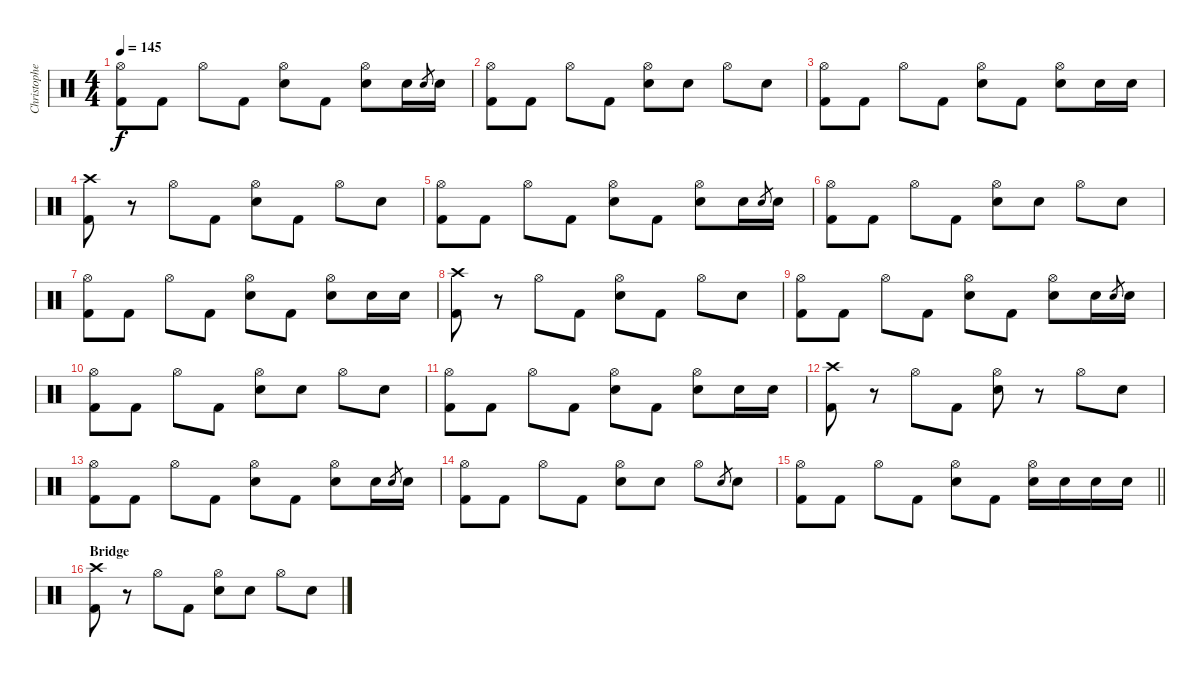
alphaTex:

\track ("Christopher - Drums" "Christophe") {instrument percussion}
\staff {score}
\articulation defaults
\ts (4 4)
\tempo 145
\clef neutral
\ks c
("Hi-Hat (open)" "Kick (hit) 2").8{dy f} "Kick (hit) 2".8 "Hi-Hat (open)".8 "Kick (hit) 2".8 ("Hi-Hat (open)" "Electric Snare (hit)").8 "Kick (hit) 2".8 ("Hi-Hat (open)" "Electric Snare (hit)").8 "Electric Snare (hit)".16 "Electric Snare (hit)".8{gr} "Electric Snare (hit)".16 |
("Hi-Hat (open)" "Kick (hit) 2").8 "Kick (hit) 2".8 "Hi-Hat (open)".8 "Kick (hit) 2".8 ("Hi-Hat (open)" "Electric Snare (hit)").8 "Electric Snare (hit)".8 "Hi-Hat (open)".8 "Electric Snare (hit)".8 |
("Hi-Hat (open)" "Kick (hit) 2").8 "Kick (hit) 2".8 "Hi-Hat (open)".8 "Kick (hit) 2".8 ("Hi-Hat (open)" "Electric Snare (hit)").8 "Kick (hit) 2".8 ("Hi-Hat (open)" "Electric Snare (hit)").8 "Electric Snare (hit)".16 "Electric Snare (hit)".16 |
("Crash high (hit)" "Kick (hit) 2").8 r.8 "Hi-Hat (open)".8 "Kick (hit) 2".8 ("Hi-Hat (open)" "Electric Snare (hit)").8 "Kick (hit) 2".8 "Hi-Hat (open)".8 "Electric Snare (hit)".8 |
("Hi-Hat (open)" "Kick (hit) 2").8 "Kick (hit) 2".8 "Hi-Hat (open)".8 "Kick (hit) 2".8 ("Hi-Hat (open)" "Electric Snare (hit)").8 "Kick (hit) 2".8 ("Hi-Hat (open)" "Electric Snare (hit)").8 "Electric Snare (hit)".16 "Electric Snare (hit)".8{gr} "Electric Snare (hit)".16 |
("Hi-Hat (open)" "Kick (hit) 2").8 "Kick (hit) 2".8 "Hi-Hat (open)".8 "Kick (hit) 2".8 ("Hi-Hat (open)" "Electric Snare (hit)").8 "Electric Snare (hit)".8 "Hi-Hat (open)".8 "Electric Snare (hit)".8 |
("Hi-Hat (open)" "Kick (hit) 2").8 "Kick (hit) 2".8 "Hi-Hat (open)".8 "Kick (hit) 2".8 ("Hi-Hat (open)" "Electric Snare (hit)").8 "Kick (hit) 2".8 ("Hi-Hat (open)" "Electric Snare (hit)").8 "Electric Snare (hit)".16 "Electric Snare (hit)".16 |
("Crash high (hit)" "Kick (hit) 2").8 r.8 "Hi-Hat (open)".8 "Kick (hit) 2".8 ("Hi-Hat (open)" "Electric Snare (hit)").8 "Kick (hit) 2".8 "Hi-Hat (open)".8 "Electric Snare (hit)".8 |
("Hi-Hat (open)" "Kick (hit) 2").8 "Kick (hit) 2".8 "Hi-Hat (open)".8 "Kick (hit) 2".8 ("Hi-Hat (open)" "Electric Snare (hit)").8 "Kick (hit) 2".8 ("Hi-Hat (open)" "Electric Snare (hit)").8 "Electric Snare (hit)".16 "Electric Snare (hit)".8{gr} "Electric Snare (hit)".16 |
("Hi-Hat (open)" "Kick (hit) 2").8 "Kick (hit) 2".8 "Hi-Hat (open)".8 "Kick (hit) 2".8 ("Hi-Hat (open)" "Electric Snare (hit)").8 "Electric Snare (hit)".8 "Hi-Hat (open)".8 "Electric Snare (hit)".8 |
("Hi-Hat (open)" "Kick (hit) 2").8 "Kick (hit) 2".8 "Hi-Hat (open)".8 "Kick (hit) 2".8 ("Hi-Hat (open)" "Electric Snare (hit)").8 "Kick (hit) 2".8 ("Hi-Hat (open)" "Electric Snare (hit)").8 "Electric Snare (hit)".16 "Electric Snare (hit)".16 |
("Crash high (hit)" "Kick (hit) 2").8 r.8 "Hi-Hat (open)".8 "Kick (hit) 2".8 ("Hi-Hat (open)" "Electric Snare (hit)").8 r.8 "Hi-Hat (open)".8 "Electric Snare (hit)".8 |
("Hi-Hat (open)" "Kick (hit) 2").8 "Kick (hit) 2".8 "Hi-Hat (open)".8 "Kick (hit) 2".8 ("Hi-Hat (open)" "Electric Snare (hit)").8 "Kick (hit) 2".8 ("Hi-Hat (open)" "Electric Snare (hit)").8 "Electric Snare (hit)".16 "Electric Snare (hit)".8{gr} "Electric Snare (hit)".16 |
("Hi-Hat (open)" "Kick (hit) 2").8 "Kick (hit) 2".8 "Hi-Hat (open)".8 "Kick (hit) 2".8 ("Hi-Hat (open)" "Electric Snare (hit)").8 "Electric Snare (hit)".8 "Hi-Hat (open)".8 "Electric Snare (hit)".8{gr} "Electric Snare (hit)".8 |
\barLineRight lightlight
("Hi-Hat (open)" "Kick (hit) 2").8 "Kick (hit) 2".8 "Hi-Hat (open)".8 "Kick (hit) 2".8 ("Hi-Hat (open)" "Electric Snare (hit)").8 "Kick (hit) 2".8 ("Hi-Hat (open)" "Electric Snare (hit)").16 "Electric Snare (hit)".16 "Electric Snare (hit)".16 "Electric Snare (hit)".16 |
\section ("" "Bridge")
("Crash high (hit)" "Kick (hit) 2").8 r.8 "Hi-Hat (open)".8 "Kick (hit) 2".8 ("Hi-Hat (open)" "Electric Snare (hit)").8 "Electric Snare (hit)".8 "Hi-Hat (open)".8 "Electric Snare (hit)".8
